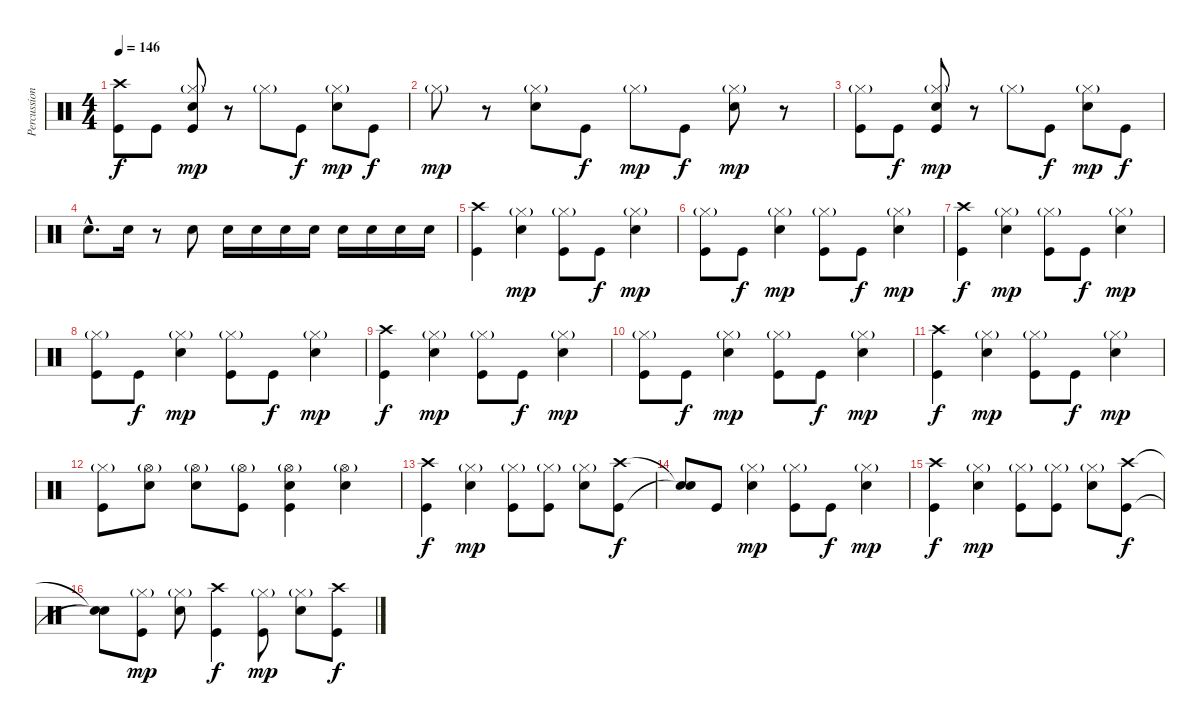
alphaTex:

\track ("Percussion" "Percussion") {instrument percussion}
\staff {score}
\articulation defaults
\ts (4 4)
\tempo 146
\clef neutral
\ks c
("Crash high (hit)" "Kick (hit)").8{dy f} "Kick (hit)".8 ("Hi-Hat (closed)"{g} "Snare (hit) 2" "Kick (hit)").8{dy mp} r.8 "Hi-Hat (closed)"{g}.8 "Kick (hit)".8{dy f} ("Hi-Hat (closed)"{g} "Snare (hit) 2").8{dy mp} "Kick (hit)".8{dy f} |
"Hi-Hat (closed)"{g}.8{dy mp} r.8 ("Hi-Hat (closed)"{g} "Snare (hit) 2").8 "Kick (hit)".8{dy f} "Hi-Hat (closed)"{g}.8{dy mp} "Kick (hit)".8{dy f} ("Hi-Hat (closed)"{g} "Snare (hit) 2").8{dy mp} r.8 |
("Hi-Hat (closed)"{g} "Kick (hit)").8 "Kick (hit)".8{dy f} ("Hi-Hat (closed)"{g} "Snare (hit) 2" "Kick (hit)").8{dy mp} r.8 "Hi-Hat (closed)"{g}.8 "Kick (hit)".8{dy f} ("Hi-Hat (closed)"{g} "Snare (hit) 2").8{dy mp} "Kick (hit)".8{dy f} |
"Snare (hit) 2"{hac}.8{d} "Snare (hit) 2".16 r.8 "Snare (hit) 2".8 "Snare (hit) 2".16 "Snare (hit) 2".16 "Snare (hit) 2".16 "Snare (hit) 2".16 "Snare (hit) 2".16 "Snare (hit) 2".16 "Snare (hit) 2".16 "Snare (hit) 2".16 |
("Crash high (hit)" "Kick (hit)").4 ("Hi-Hat (closed)"{g} "Snare (hit) 2").4{dy mp} ("Hi-Hat (closed)"{g} "Kick (hit)").8 "Kick (hit)".8{dy f} ("Hi-Hat (closed)"{g} "Snare (hit) 2").4{dy mp} |
("Hi-Hat (closed)"{g} "Kick (hit)").8 "Kick (hit)".8{dy f} ("Hi-Hat (closed)"{g} "Snare (hit) 2").4{dy mp} ("Hi-Hat (closed)"{g} "Kick (hit)").8 "Kick (hit)".8{dy f} ("Hi-Hat (closed)"{g} "Snare (hit) 2").4{dy mp} |
("Crash high (hit)" "Kick (hit)").4{dy f} ("Hi-Hat (closed)"{g} "Snare (hit) 2").4{dy mp} ("Hi-Hat (closed)"{g} "Kick (hit)").8 "Kick (hit)".8{dy f} ("Hi-Hat (closed)"{g} "Snare (hit) 2").4{dy mp} |
("Hi-Hat (closed)"{g} "Kick (hit)").8 "Kick (hit)".8{dy f} ("Hi-Hat (closed)"{g} "Snare (hit) 2").4{dy mp} ("Hi-Hat (closed)"{g} "Kick (hit)").8 "Kick (hit)".8{dy f} ("Hi-Hat (closed)"{g} "Snare (hit) 2").4{dy mp} |
("Crash high (hit)" "Kick (hit)").4{dy f} ("Hi-Hat (closed)"{g} "Snare (hit) 2").4{dy mp} ("Hi-Hat (closed)"{g} "Kick (hit)").8 "Kick (hit)".8{dy f} ("Hi-Hat (closed)"{g} "Snare (hit) 2").4{dy mp} |
("Hi-Hat (closed)"{g} "Kick (hit)").8 "Kick (hit)".8{dy f} ("Hi-Hat (closed)"{g} "Snare (hit) 2").4{dy mp} ("Hi-Hat (closed)"{g} "Kick (hit)").8 "Kick (hit)".8{dy f} ("Hi-Hat (closed)"{g} "Snare (hit) 2").4{dy mp} |
("Crash high (hit)" "Kick (hit)").4{dy f} ("Hi-Hat (closed)"{g} "Snare (hit) 2").4{dy mp} ("Hi-Hat (closed)"{g} "Kick (hit)").8 "Kick (hit)".8{dy f} ("Hi-Hat (closed)"{g} "Snare (hit) 2").4{dy mp} |
("Hi-Hat (closed)"{g} "Kick (hit)").8 ("Hi-Hat (open)"{g} "Snare (hit) 2").8 ("Hi-Hat (open)"{g} "Snare (hit) 2").8 ("Hi-Hat (open)"{g} "Kick (hit)").8 ("Hi-Hat (open)"{g} "Snare (hit) 2" "Kick (hit)").4 ("Hi-Hat (open)"{g} "Snare (hit) 2").4 |
("Crash high (hit)" "Kick (hit)").4{dy f} ("Hi-Hat (closed)"{g} "Snare (hit) 2").4{dy mp} ("Hi-Hat (closed)"{g} "Kick (hit)").8 ("Hi-Hat (closed)"{g} "Kick (hit)").8 ("Hi-Hat (closed)"{g} "Snare (hit) 2").8 ("Crash high (hit)" "Kick (hit)").8{dy f} |
("Snare (hit)"{t} "Snare (hit)"{t}).8 "Kick (hit)".8 ("Hi-Hat (closed)"{g} "Snare (hit) 2").4{dy mp} ("Hi-Hat (closed)"{g} "Kick (hit)").8 "Kick (hit)".8{dy f} ("Hi-Hat (closed)"{g} "Snare (hit) 2").4{dy mp} |
("Crash high (hit)" "Kick (hit)").4{dy f} ("Hi-Hat (closed)"{g} "Snare (hit) 2").4{dy mp} ("Hi-Hat (closed)"{g} "Kick (hit)").8 ("Hi-Hat (closed)"{g} "Kick (hit)").8 ("Hi-Hat (closed)"{g} "Snare (hit) 2").8 ("Crash high (hit)" "Kick (hit)").8{dy f} |
("Snare (hit)"{t} "Snare (hit)"{t}).8 ("Hi-Hat (closed)"{g} "Kick (hit)").8{dy mp} ("Hi-Hat (closed)"{g} "Snare (hit) 2").8 ("Crash high (hit)" "Kick (hit)").4{dy f} ("Hi-Hat (closed)"{g} "Kick (hit)").8{dy mp} ("Hi-Hat (closed)"{g} "Snare (hit) 2").8 ("Crash high (hit)" "Kick (hit)").8{dy f}
